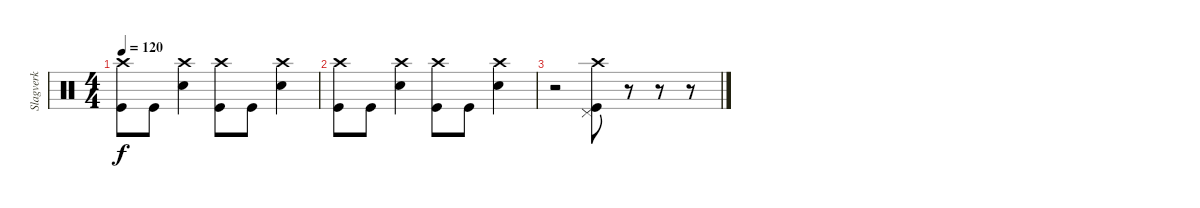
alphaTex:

\track ("Slagverk" "Slagverk") {instrument percussion}
\staff {score}
\articulation defaults
\ts (4 4)
\tempo 120
\clef neutral
\ks c
("Crash high (hit)" "Kick (hit)").8{dy f} "Kick (hit)".8 ("Crash high (hit)" "Snare (hit) 2").4 ("Crash high (hit)" "Kick (hit)").8 "Kick (hit)".8 ("Crash high (hit)" "Snare (hit) 2").4 |
("Crash high (hit)" "Kick (hit)").8 "Kick (hit)".8 ("Crash high (hit)" "Snare (hit) 2").4 ("Crash high (hit)" "Kick (hit)").8 "Kick (hit)".8 ("Crash high (hit)" "Snare (hit) 2").4 |
r.2 ("Crash high (hit)" "Pedal Hi-Hat (hit)" "Kick (hit)").8 r.8 r.8 r.8
